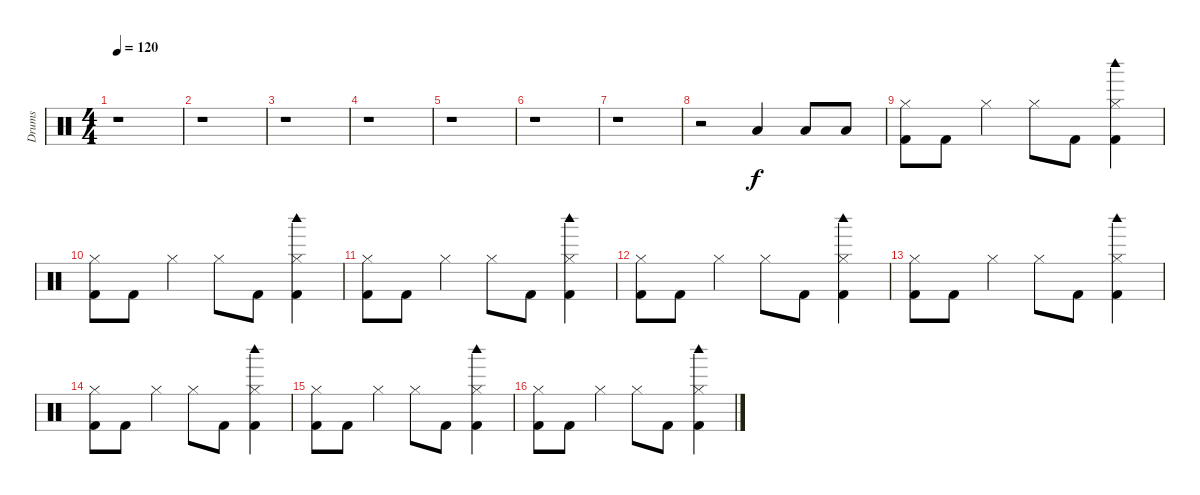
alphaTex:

\track ("Drums" "Drums") {instrument percussion}
\staff {score}
\articulation defaults
\ts (4 4)
\tempo 120
\clef neutral
\ks c
r.1{dy f} |
r.1 |
r.1 |
r.1 |
r.1 |
r.1 |
r.1 |
r.2 "Low Tom (hit)".4 "Low Tom (hit)".8 "Low Tom (hit)".8 |
("Hi-Hat (closed)" "Kick (hit) 2").8 "Kick (hit) 2".8 "Hi-Hat (closed)".4 "Hi-Hat (closed)".8 "Kick (hit) 2".8 ("Hi-Hat (closed)" "Woodblock high (hit)" "Kick (hit) 2").4 |
("Hi-Hat (closed)" "Kick (hit) 2").8 "Kick (hit) 2".8 "Hi-Hat (closed)".4 "Hi-Hat (closed)".8 "Kick (hit) 2".8 ("Hi-Hat (closed)" "Woodblock high (hit)" "Kick (hit) 2").4 |
("Hi-Hat (closed)" "Kick (hit) 2").8 "Kick (hit) 2".8 "Hi-Hat (closed)".4 "Hi-Hat (closed)".8 "Kick (hit) 2".8 ("Hi-Hat (closed)" "Woodblock high (hit)" "Kick (hit) 2").4 |
("Hi-Hat (closed)" "Kick (hit) 2").8 "Kick (hit) 2".8 "Hi-Hat (closed)".4 "Hi-Hat (closed)".8 "Kick (hit) 2".8 ("Hi-Hat (closed)" "Woodblock high (hit)" "Kick (hit) 2").4 |
("Hi-Hat (closed)" "Kick (hit) 2").8 "Kick (hit) 2".8 "Hi-Hat (closed)".4 "Hi-Hat (closed)".8 "Kick (hit) 2".8 ("Hi-Hat (closed)" "Woodblock high (hit)" "Kick (hit) 2").4 |
("Hi-Hat (closed)" "Kick (hit) 2").8 "Kick (hit) 2".8 "Hi-Hat (closed)".4 "Hi-Hat (closed)".8 "Kick (hit) 2".8 ("Hi-Hat (closed)" "Woodblock high (hit)" "Kick (hit) 2").4 |
("Hi-Hat (closed)" "Kick (hit) 2").8 "Kick (hit) 2".8 "Hi-Hat (closed)".4 "Hi-Hat (closed)".8 "Kick (hit) 2".8 ("Hi-Hat (closed)" "Woodblock high (hit)" "Kick (hit) 2").4 |
("Hi-Hat (closed)" "Kick (hit) 2").8 "Kick (hit) 2".8 "Hi-Hat (closed)".4 "Hi-Hat (closed)".8 "Kick (hit) 2".8 ("Hi-Hat (closed)" "Woodblock high (hit)" "Kick (hit) 2").4
